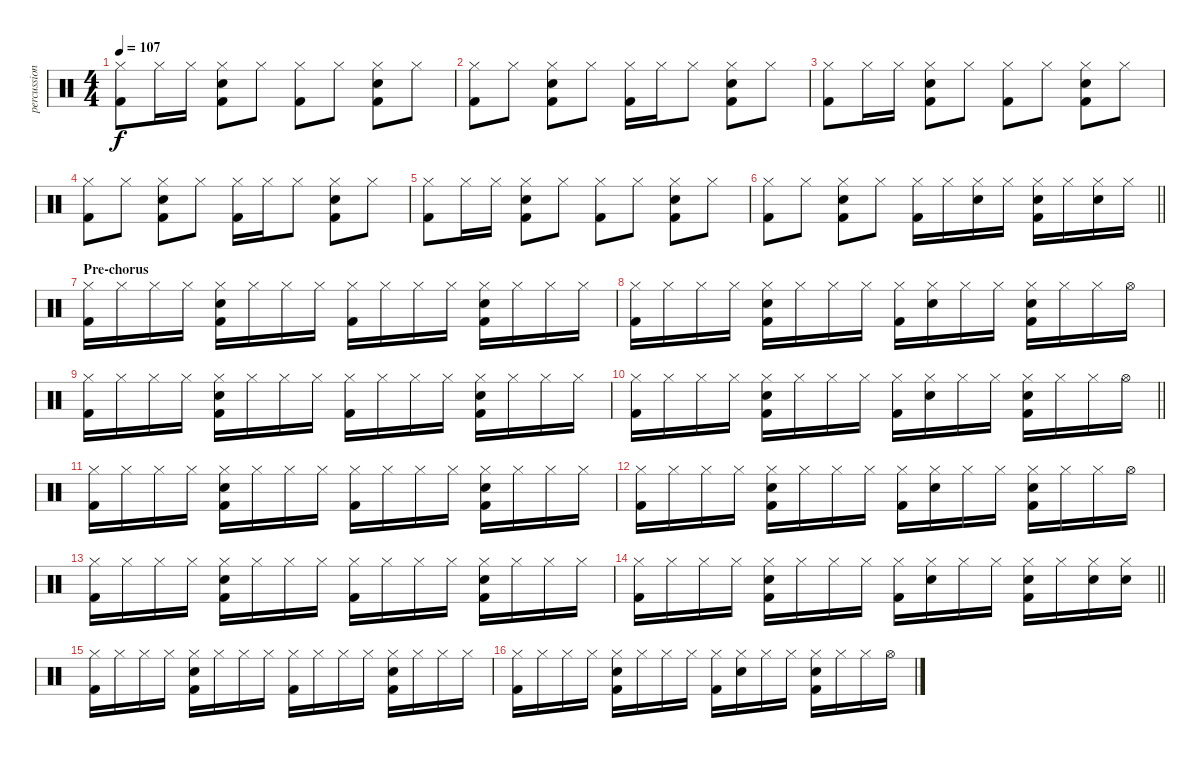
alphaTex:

\track ("percussion" "percussion") {instrument percussion}
\staff {score}
\articulation defaults
\ts (4 4)
\tempo 107
\clef neutral
\ks c
("Hi-Hat (closed)" "Kick (hit) 2").8{dy f} "Hi-Hat (closed)".16 "Hi-Hat (closed)".16 ("Snare (hit) 2" "Hi-Hat (closed)" "Kick (hit) 2").8 "Hi-Hat (closed)".8 ("Hi-Hat (closed)" "Kick (hit) 2").8 "Hi-Hat (closed)".8 ("Snare (hit) 2" "Hi-Hat (closed)" "Kick (hit) 2").8 "Hi-Hat (closed)".8 |
("Hi-Hat (closed)" "Kick (hit) 2").8 "Hi-Hat (closed)".8 ("Snare (hit) 2" "Hi-Hat (closed)" "Kick (hit) 2").8 "Hi-Hat (closed)".8 ("Hi-Hat (closed)" "Kick (hit) 2").16 "Hi-Hat (closed)".16 "Hi-Hat (closed)".8 ("Snare (hit) 2" "Hi-Hat (closed)" "Kick (hit) 2").8 "Hi-Hat (closed)".8 |
("Hi-Hat (closed)" "Kick (hit) 2").8 "Hi-Hat (closed)".16 "Hi-Hat (closed)".16 ("Snare (hit) 2" "Hi-Hat (closed)" "Kick (hit) 2").8 "Hi-Hat (closed)".8 ("Hi-Hat (closed)" "Kick (hit) 2").8 "Hi-Hat (closed)".8 ("Snare (hit) 2" "Hi-Hat (closed)" "Kick (hit) 2").8 "Hi-Hat (closed)".8 |
("Hi-Hat (closed)" "Kick (hit) 2").8 "Hi-Hat (closed)".8 ("Snare (hit) 2" "Hi-Hat (closed)" "Kick (hit) 2").8 "Hi-Hat (closed)".8 ("Hi-Hat (closed)" "Kick (hit) 2").16 "Hi-Hat (closed)".16 "Hi-Hat (closed)".8 ("Snare (hit) 2" "Hi-Hat (closed)" "Kick (hit) 2").8 "Hi-Hat (closed)".8 |
("Hi-Hat (closed)" "Kick (hit) 2").8 "Hi-Hat (closed)".16 "Hi-Hat (closed)".16 ("Snare (hit) 2" "Hi-Hat (closed)" "Kick (hit) 2").8 "Hi-Hat (closed)".8 ("Hi-Hat (closed)" "Kick (hit) 2").8 "Hi-Hat (closed)".8 ("Snare (hit) 2" "Hi-Hat (closed)" "Kick (hit) 2").8 "Hi-Hat (closed)".8 |
\barLineRight lightlight
("Hi-Hat (closed)" "Kick (hit) 2").8 "Hi-Hat (closed)".8 ("Snare (hit) 2" "Hi-Hat (closed)" "Kick (hit) 2").8 "Hi-Hat (closed)".8 ("Hi-Hat (closed)" "Kick (hit) 2").16 "Hi-Hat (closed)".16 ("Snare (hit) 2" "Hi-Hat (closed)").16 "Hi-Hat (closed)".16 ("Snare (hit) 2" "Hi-Hat (closed)" "Kick (hit) 2").16 "Hi-Hat (closed)".16 ("Snare (hit) 2" "Hi-Hat (closed)").16 "Hi-Hat (closed)".16 |
\section ("" "Pre-chorus")
("Hi-Hat (closed)" "Kick (hit) 2").16 "Hi-Hat (closed)".16 "Hi-Hat (closed)".16 "Hi-Hat (closed)".16 ("Snare (hit) 2" "Hi-Hat (closed)" "Kick (hit) 2").16 "Hi-Hat (closed)".16 "Hi-Hat (closed)".16 "Hi-Hat (closed)".16 ("Hi-Hat (closed)" "Kick (hit) 2").16 "Hi-Hat (closed)".16 "Hi-Hat (closed)".16 "Hi-Hat (closed)".16 ("Snare (hit) 2" "Hi-Hat (closed)" "Kick (hit) 2").16 "Hi-Hat (closed)".16 "Hi-Hat (closed)".16 "Hi-Hat (closed)".16 |
("Hi-Hat (closed)" "Kick (hit) 2").16 "Hi-Hat (closed)".16 "Hi-Hat (closed)".16 "Hi-Hat (closed)".16 ("Snare (hit) 2" "Hi-Hat (closed)" "Kick (hit) 2").16 "Hi-Hat (closed)".16 "Hi-Hat (closed)".16 "Hi-Hat (closed)".16 ("Hi-Hat (closed)" "Kick (hit) 2").16 ("Snare (hit) 2" "Hi-Hat (closed)").16 "Hi-Hat (closed)".16 "Hi-Hat (closed)".16 ("Snare (hit) 2" "Hi-Hat (closed)" "Kick (hit) 2").16 "Hi-Hat (closed)".16 "Hi-Hat (closed)".16 "Hi-Hat (open)".16 |
("Hi-Hat (closed)" "Kick (hit) 2").16 "Hi-Hat (closed)".16 "Hi-Hat (closed)".16 "Hi-Hat (closed)".16 ("Snare (hit) 2" "Hi-Hat (closed)" "Kick (hit) 2").16 "Hi-Hat (closed)".16 "Hi-Hat (closed)".16 "Hi-Hat (closed)".16 ("Hi-Hat (closed)" "Kick (hit) 2").16 "Hi-Hat (closed)".16 "Hi-Hat (closed)".16 "Hi-Hat (closed)".16 ("Snare (hit) 2" "Hi-Hat (closed)" "Kick (hit) 2").16 "Hi-Hat (closed)".16 "Hi-Hat (closed)".16 "Hi-Hat (closed)".16 |
\barLineRight lightlight
("Hi-Hat (closed)" "Kick (hit) 2").16 "Hi-Hat (closed)".16 "Hi-Hat (closed)".16 "Hi-Hat (closed)".16 ("Snare (hit) 2" "Hi-Hat (closed)" "Kick (hit) 2").16 "Hi-Hat (closed)".16 "Hi-Hat (closed)".16 "Hi-Hat (closed)".16 ("Hi-Hat (closed)" "Kick (hit) 2").16 ("Snare (hit) 2" "Hi-Hat (closed)").16 "Hi-Hat (closed)".16 "Hi-Hat (closed)".16 ("Snare (hit) 2" "Hi-Hat (closed)" "Kick (hit) 2").16 "Hi-Hat (closed)".16 "Hi-Hat (closed)".16 "Hi-Hat (open)".16 |
("Hi-Hat (closed)" "Kick (hit) 2").16 "Hi-Hat (closed)".16 "Hi-Hat (closed)".16 "Hi-Hat (closed)".16 ("Snare (hit) 2" "Hi-Hat (closed)" "Kick (hit) 2").16 "Hi-Hat (closed)".16 "Hi-Hat (closed)".16 "Hi-Hat (closed)".16 ("Hi-Hat (closed)" "Kick (hit) 2").16 "Hi-Hat (closed)".16 "Hi-Hat (closed)".16 "Hi-Hat (closed)".16 ("Snare (hit) 2" "Hi-Hat (closed)" "Kick (hit) 2").16 "Hi-Hat (closed)".16 "Hi-Hat (closed)".16 "Hi-Hat (closed)".16 |
("Hi-Hat (closed)" "Kick (hit) 2").16 "Hi-Hat (closed)".16 "Hi-Hat (closed)".16 "Hi-Hat (closed)".16 ("Snare (hit) 2" "Hi-Hat (closed)" "Kick (hit) 2").16 "Hi-Hat (closed)".16 "Hi-Hat (closed)".16 "Hi-Hat (closed)".16 ("Hi-Hat (closed)" "Kick (hit) 2").16 ("Snare (hit) 2" "Hi-Hat (closed)").16 "Hi-Hat (closed)".16 "Hi-Hat (closed)".16 ("Snare (hit) 2" "Hi-Hat (closed)" "Kick (hit) 2").16 "Hi-Hat (closed)".16 "Hi-Hat (closed)".16 "Hi-Hat (open)".16 |
("Hi-Hat (closed)" "Kick (hit) 2").16 "Hi-Hat (closed)".16 "Hi-Hat (closed)".16 "Hi-Hat (closed)".16 ("Snare (hit) 2" "Hi-Hat (closed)" "Kick (hit) 2").16 "Hi-Hat (closed)".16 "Hi-Hat (closed)".16 "Hi-Hat (closed)".16 ("Hi-Hat (closed)" "Kick (hit) 2").16 "Hi-Hat (closed)".16 "Hi-Hat (closed)".16 "Hi-Hat (closed)".16 ("Snare (hit) 2" "Hi-Hat (closed)" "Kick (hit) 2").16 "Hi-Hat (closed)".16 "Hi-Hat (closed)".16 "Hi-Hat (closed)".16 |
\barLineRight lightlight
("Hi-Hat (closed)" "Kick (hit) 2").16 "Hi-Hat (closed)".16 "Hi-Hat (closed)".16 "Hi-Hat (closed)".16 ("Snare (hit) 2" "Hi-Hat (closed)" "Kick (hit) 2").16 "Hi-Hat (closed)".16 "Hi-Hat (closed)".16 "Hi-Hat (closed)".16 ("Hi-Hat (closed)" "Kick (hit) 2").16 ("Snare (hit) 2" "Hi-Hat (closed)").16 "Hi-Hat (closed)".16 "Hi-Hat (closed)".16 ("Snare (hit) 2" "Hi-Hat (closed)" "Kick (hit) 2").16 "Hi-Hat (closed)".16 ("Snare (hit) 2" "Hi-Hat (closed)").16 ("Snare (hit) 2" "Hi-Hat (closed)").16 |
("Hi-Hat (closed)" "Kick (hit) 2").16 "Hi-Hat (closed)".16 "Hi-Hat (closed)".16 "Hi-Hat (closed)".16 ("Snare (hit) 2" "Hi-Hat (closed)" "Kick (hit) 2").16 "Hi-Hat (closed)".16 "Hi-Hat (closed)".16 "Hi-Hat (closed)".16 ("Hi-Hat (closed)" "Kick (hit) 2").16 "Hi-Hat (closed)".16 "Hi-Hat (closed)".16 "Hi-Hat (closed)".16 ("Snare (hit) 2" "Hi-Hat (closed)" "Kick (hit) 2").16 "Hi-Hat (closed)".16 "Hi-Hat (closed)".16 "Hi-Hat (closed)".16 |
("Hi-Hat (closed)" "Kick (hit) 2").16 "Hi-Hat (closed)".16 "Hi-Hat (closed)".16 "Hi-Hat (closed)".16 ("Snare (hit) 2" "Hi-Hat (closed)" "Kick (hit) 2").16 "Hi-Hat (closed)".16 "Hi-Hat (closed)".16 "Hi-Hat (closed)".16 ("Hi-Hat (closed)" "Kick (hit) 2").16 ("Snare (hit) 2" "Hi-Hat (closed)").16 "Hi-Hat (closed)".16 "Hi-Hat (closed)".16 ("Snare (hit) 2" "Hi-Hat (closed)" "Kick (hit) 2").16 "Hi-Hat (closed)".16 "Hi-Hat (closed)".16 "Hi-Hat (open)".16
